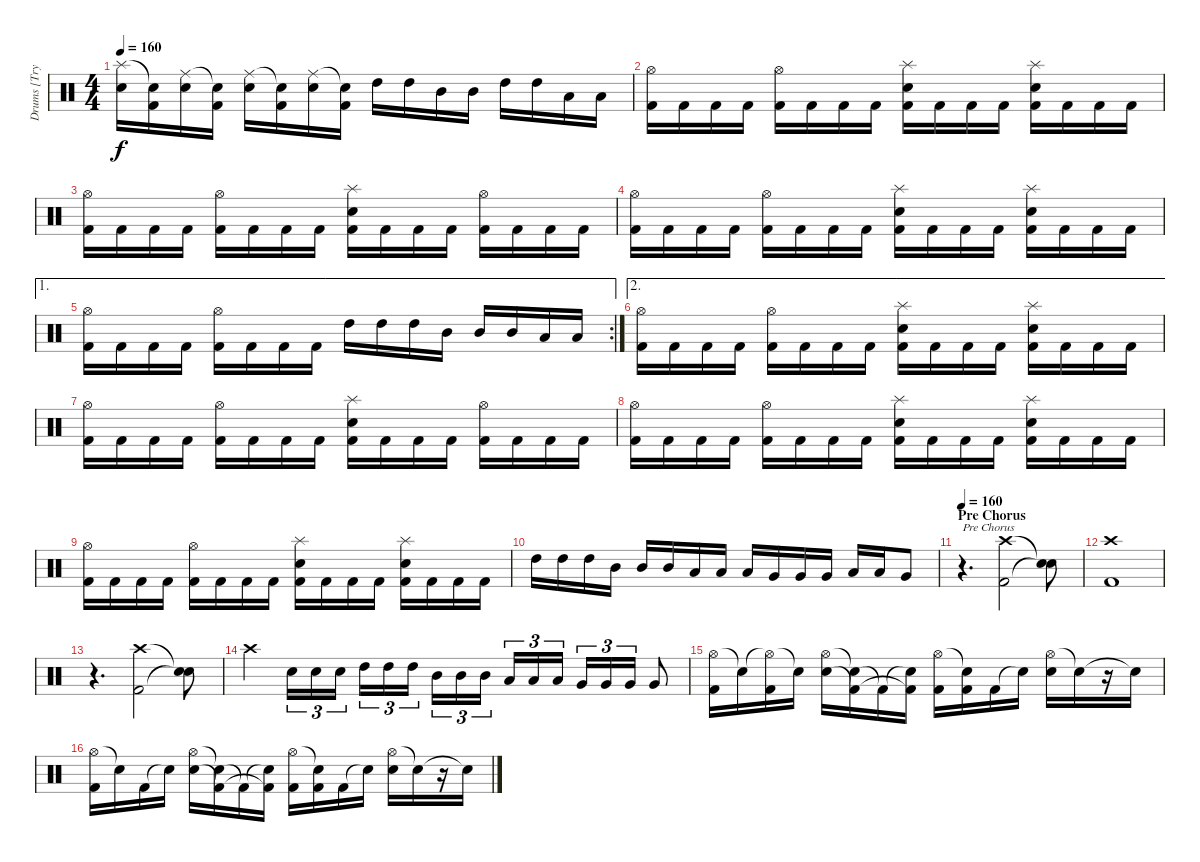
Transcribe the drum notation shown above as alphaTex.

\track ("Drums [Trym]" "Drums [Try") {instrument percussion}
\staff {score}
\articulation defaults
\ts (4 4)
\tempo 160
\clef neutral
\ks c
("Splash (hit)" "Electric Snare (hit)").16{dy f} ("Snare (hit)"{t} "Kick (hit) 2").16 ("Ride (middle)" "Electric Snare (hit)").16 ("Snare (hit)"{t} "Kick (hit) 2").16 ("Ride (middle)" "Electric Snare (hit)").16 ("Snare (hit)"{t} "Kick (hit) 2").16 ("Ride (middle)" "Electric Snare (hit)").16 ("Snare (hit)"{t} "Kick (hit) 2").16 "High Tom (hit)".16 "High Tom (hit)".16 "Mid Tom (hit)".16 "Mid Tom (hit)".16 "High Tom (hit)".16 "High Tom (hit)".16 "Low Tom (hit)".16 "Low Tom (hit)".16 |
("Hi-Hat (open)" "Kick (hit) 2").16 "Kick (hit) 2".16 "Kick (hit) 2".16 "Kick (hit) 2".16 ("Hi-Hat (open)" "Kick (hit) 2").16 "Kick (hit) 2".16 "Kick (hit) 2".16 "Kick (hit) 2".16 ("Splash (hit)" "Electric Snare (hit)" "Kick (hit) 2").16 "Kick (hit) 2".16 "Kick (hit) 2".16 "Kick (hit) 2".16 ("Splash (hit)" "Electric Snare (hit)" "Kick (hit) 2").16 "Kick (hit) 2".16 "Kick (hit) 2".16 "Kick (hit) 2".16 |
("Hi-Hat (open)" "Kick (hit) 2").16 "Kick (hit) 2".16 "Kick (hit) 2".16 "Kick (hit) 2".16 ("Hi-Hat (open)" "Kick (hit) 2").16 "Kick (hit) 2".16 "Kick (hit) 2".16 "Kick (hit) 2".16 ("Splash (hit)" "Electric Snare (hit)" "Kick (hit) 2").16 "Kick (hit) 2".16 "Kick (hit) 2".16 "Kick (hit) 2".16 ("Hi-Hat (open)" "Kick (hit) 2").16 "Kick (hit) 2".16 "Kick (hit) 2".16 "Kick (hit) 2".16 |
("Hi-Hat (open)" "Kick (hit) 2").16 "Kick (hit) 2".16 "Kick (hit) 2".16 "Kick (hit) 2".16 ("Hi-Hat (open)" "Kick (hit) 2").16 "Kick (hit) 2".16 "Kick (hit) 2".16 "Kick (hit) 2".16 ("Splash (hit)" "Electric Snare (hit)" "Kick (hit) 2").16 "Kick (hit) 2".16 "Kick (hit) 2".16 "Kick (hit) 2".16 ("Splash (hit)" "Electric Snare (hit)" "Kick (hit) 2").16 "Kick (hit) 2".16 "Kick (hit) 2".16 "Kick (hit) 2".16 |
\ae 1
\rc 2
("Hi-Hat (open)" "Kick (hit) 2").16 "Kick (hit) 2".16 "Kick (hit) 2".16 "Kick (hit) 2".16 ("Hi-Hat (open)" "Kick (hit) 2").16 "Kick (hit) 2".16 "Kick (hit) 2".16 "Kick (hit) 2".16 "High Tom (hit)".16 "High Tom (hit)".16 "High Tom (hit)".16 "Mid Tom (hit)".16 "Mid Tom (hit)".16 "Mid Tom (hit)".16 "Low Tom (hit)".16 "Low Tom (hit)".16 |
\ae 2
("Hi-Hat (open)" "Kick (hit) 2").16 "Kick (hit) 2".16 "Kick (hit) 2".16 "Kick (hit) 2".16 ("Hi-Hat (open)" "Kick (hit) 2").16 "Kick (hit) 2".16 "Kick (hit) 2".16 "Kick (hit) 2".16 ("Splash (hit)" "Electric Snare (hit)" "Kick (hit) 2").16 "Kick (hit) 2".16 "Kick (hit) 2".16 "Kick (hit) 2".16 ("Splash (hit)" "Electric Snare (hit)" "Kick (hit) 2").16 "Kick (hit) 2".16 "Kick (hit) 2".16 "Kick (hit) 2".16 |
("Hi-Hat (open)" "Kick (hit) 2").16 "Kick (hit) 2".16 "Kick (hit) 2".16 "Kick (hit) 2".16 ("Hi-Hat (open)" "Kick (hit) 2").16 "Kick (hit) 2".16 "Kick (hit) 2".16 "Kick (hit) 2".16 ("Splash (hit)" "Electric Snare (hit)" "Kick (hit) 2").16 "Kick (hit) 2".16 "Kick (hit) 2".16 "Kick (hit) 2".16 ("Hi-Hat (open)" "Kick (hit) 2").16 "Kick (hit) 2".16 "Kick (hit) 2".16 "Kick (hit) 2".16 |
("Hi-Hat (open)" "Kick (hit) 2").16 "Kick (hit) 2".16 "Kick (hit) 2".16 "Kick (hit) 2".16 ("Hi-Hat (open)" "Kick (hit) 2").16 "Kick (hit) 2".16 "Kick (hit) 2".16 "Kick (hit) 2".16 ("Splash (hit)" "Electric Snare (hit)" "Kick (hit) 2").16 "Kick (hit) 2".16 "Kick (hit) 2".16 "Kick (hit) 2".16 ("Splash (hit)" "Electric Snare (hit)" "Kick (hit) 2").16 "Kick (hit) 2".16 "Kick (hit) 2".16 "Kick (hit) 2".16 |
("Hi-Hat (open)" "Kick (hit) 2").16 "Kick (hit) 2".16 "Kick (hit) 2".16 "Kick (hit) 2".16 ("Hi-Hat (open)" "Kick (hit) 2").16 "Kick (hit) 2".16 "Kick (hit) 2".16 "Kick (hit) 2".16 ("Splash (hit)" "Electric Snare (hit)" "Kick (hit) 2").16 "Kick (hit) 2".16 "Kick (hit) 2".16 "Kick (hit) 2".16 ("Splash (hit)" "Electric Snare (hit)" "Kick (hit) 2").16 "Kick (hit) 2".16 "Kick (hit) 2".16 "Kick (hit) 2".16 |
"High Tom (hit)".16 "High Tom (hit)".16 "High Tom (hit)".16 "Mid Tom (hit)".16 "Mid Tom (hit)".16 "Mid Tom (hit)".16 "Low Tom (hit)".16 "Low Tom (hit)".16 "Low Tom (hit)".16 "Very Low Tom (hit)".16 "Very Low Tom (hit)".16 "Very Low Tom (hit)".16 "Low Tom (hit)".16 "Low Tom (hit)".16 "Very Low Tom (hit)".8 |
\section ("" "Pre Chorus")
\tempo 160
r.4{d txt "Pre Chorus"} ("Crash high (hit)" "Kick (hit) 2").2 ("Snare (hit)"{t} "Snare (hit)"{t}).8 |
("Crash high (hit)" "Kick (hit) 2").1 |
r.4{d} ("Crash high (hit)" "Kick (hit) 2").2 ("Snare (hit)"{t} "Snare (hit)"{t}).8 |
"Crash high (hit)".4 "Electric Snare (hit)".16{tu (3 2)} "Electric Snare (hit)".16{tu (3 2)} "Electric Snare (hit)".16{tu (3 2)} "High Tom (hit)".16{tu (3 2)} "High Tom (hit)".16{tu (3 2)} "High Tom (hit)".16{tu (3 2)} "Mid Tom (hit)".16{tu (3 2)} "Mid Tom (hit)".16{tu (3 2)} "Mid Tom (hit)".16{tu (3 2)} "Low Tom (hit)".16{tu (3 2)} "Low Tom (hit)".16{tu (3 2)} "Low Tom (hit)".16{tu (3 2)} "Very Low Tom (hit)".16{tu (3 2)} "Very Low Tom (hit)".16{tu (3 2)} "Very Low Tom (hit)".16{tu (3 2)} "Very Low Tom (hit)".8 |
("Hi-Hat (open)" "Kick (hit) 2").16 "Snare (hit)"{t}.16 ("Hi-Hat (open)"{t} "Kick (hit) 2").16 "Snare (hit)"{t}.16 ("Hi-Hat (open)" "Electric Snare (hit)").16 ("Snare (hit)"{t} "Kick (hit) 2"{t}).16 "Kick (hit) 2"{t}.16 ("Snare (hit)"{t} "Kick (hit) 2"{t}).16 ("Hi-Hat (open)" "Kick (hit) 2").16 ("Snare (hit)"{t} "Kick (hit) 2").16 "Kick (hit) 2".16 "Snare (hit)"{t}.16 ("Hi-Hat (open)" "Electric Snare (hit)").16 "Snare (hit)"{t}.16 r.16 "Snare (hit)"{t}.16 |
("Hi-Hat (open)" "Kick (hit) 2").16 "Snare (hit)"{t}.16 "Kick (hit) 2".16 "Snare (hit)"{t}.16 ("Hi-Hat (open)" "Electric Snare (hit)").16 ("Snare (hit)"{t} "Kick (hit) 2"{t}).16 "Kick (hit) 2"{t}.16 ("Snare (hit)"{t} "Kick (hit) 2"{t}).16 ("Hi-Hat (open)" "Kick (hit) 2").16 ("Snare (hit)"{t} "Kick (hit) 2").16 "Kick (hit) 2".16 "Snare (hit)"{t}.16 ("Hi-Hat (open)" "Electric Snare (hit)").16 "Snare (hit)"{t}.16 r.16 "Snare (hit)"{t}.16
